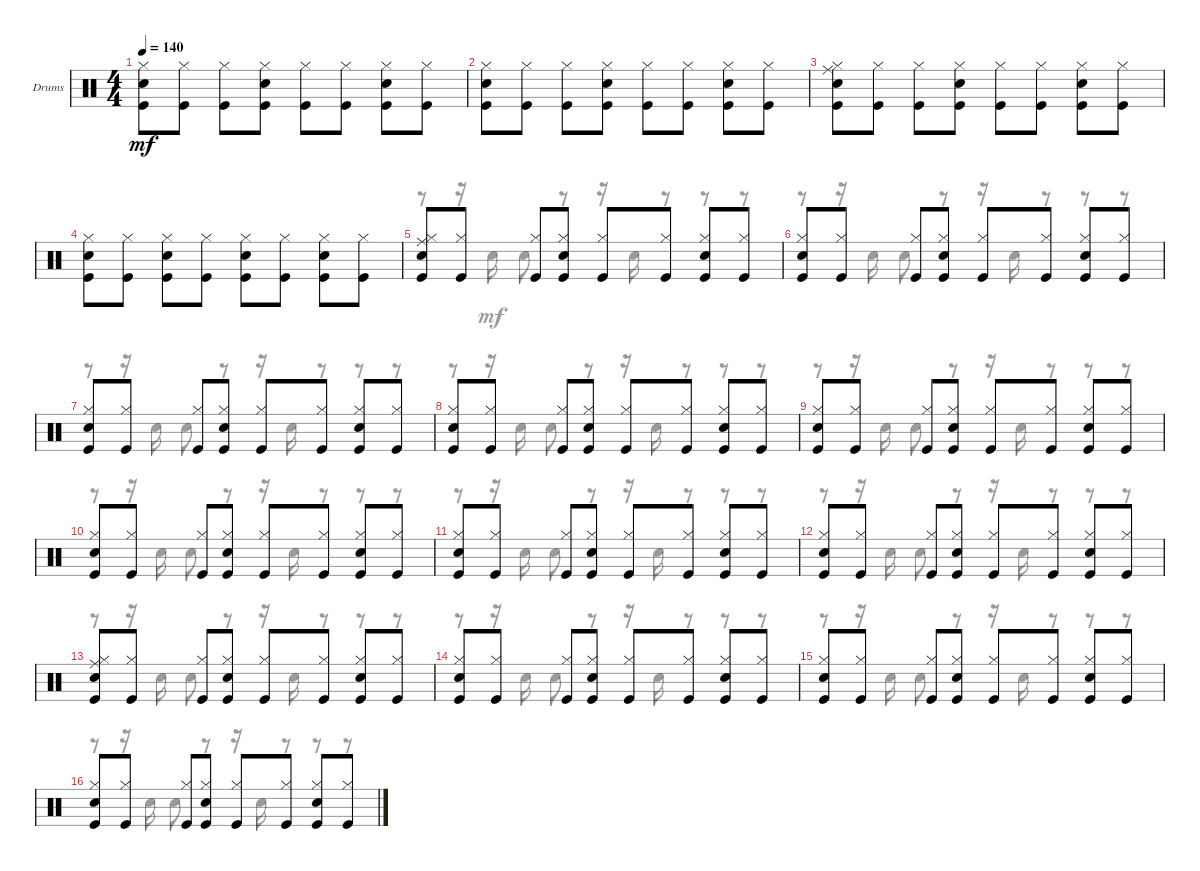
\defaultSystemsLayout 4
\bracketExtendMode groupsimilarinstruments
\firstSystemTrackNameOrientation horizontal
\otherSystemsTrackNameOrientation horizontal
\track ("Ударные" "Drums") {instrument percussion}
\staff {score}
\articulation defaults
\voice
\ts (4 4)
\tempo 140
\clef neutral
\scale
0.333333
\ks c
("Snare (hit) 2" "Hi-Hat (closed)" "Kick (hit)").8{dy mf} ("Hi-Hat (closed)" "Kick (hit)").8 ("Hi-Hat (closed)" "Kick (hit)").8 ("Snare (hit) 2" "Hi-Hat (closed)" "Kick (hit)").8 ("Hi-Hat (closed)" "Kick (hit)").8 ("Hi-Hat (closed)" "Kick (hit)").8 ("Snare (hit) 2" "Hi-Hat (closed)" "Kick (hit)").8 ("Hi-Hat (closed)" "Kick (hit)").8 |
\scale
0.333333 ("Snare (hit) 2" "Hi-Hat (closed)" "Kick (hit)").8 ("Hi-Hat (closed)" "Kick (hit)").8 ("Hi-Hat (closed)" "Kick (hit)").8 ("Snare (hit) 2" "Hi-Hat (closed)" "Kick (hit)").8 ("Hi-Hat (closed)" "Kick (hit)").8 ("Hi-Hat (closed)" "Kick (hit)").8 ("Snare (hit) 2" "Hi-Hat (closed)" "Kick (hit)").8 ("Hi-Hat (closed)" "Kick (hit)").8 |
\scale
0.333333 ("Snare (hit) 2" "Hi-Hat (closed)" "Kick (hit)" "Ride (middle)").8 ("Hi-Hat (closed)" "Kick (hit)").8 ("Hi-Hat (closed)" "Kick (hit)").8 ("Snare (hit) 2" "Hi-Hat (closed)" "Kick (hit)").8 ("Hi-Hat (closed)" "Kick (hit)").8 ("Hi-Hat (closed)" "Kick (hit)").8 ("Snare (hit) 2" "Hi-Hat (closed)" "Kick (hit)").8 ("Hi-Hat (closed)" "Kick (hit)").8 |
\scale
0.333333 ("Snare (hit) 2" "Hi-Hat (closed)" "Kick (hit)").8 ("Hi-Hat (closed)" "Kick (hit)").8 ("Hi-Hat (closed)" "Kick (hit)" "Snare (hit) 2").8 ("Hi-Hat (closed)" "Kick (hit)").8 ("Hi-Hat (closed)" "Kick (hit)" "Snare (hit) 2").8 ("Hi-Hat (closed)" "Kick (hit)").8 ("Snare (hit) 2" "Hi-Hat (closed)" "Kick (hit)").8 ("Hi-Hat (closed)" "Kick (hit)").8 |
\scale
0.333333 ("Snare (hit) 2" "Hi-Hat (closed)" "Kick (hit)" "Ride (middle)").8 ("Hi-Hat (closed)" "Kick (hit)").8 ("Hi-Hat (closed)" "Kick (hit)").8 ("Snare (hit) 2" "Hi-Hat (closed)" "Kick (hit)").8 ("Hi-Hat (closed)" "Kick (hit)").8 ("Hi-Hat (closed)" "Kick (hit)").8 ("Snare (hit) 2" "Hi-Hat (closed)" "Kick (hit)").8 ("Hi-Hat (closed)" "Kick (hit)").8 |
\scale
0.333333 ("Snare (hit) 2" "Hi-Hat (closed)" "Kick (hit)").8 ("Hi-Hat (closed)" "Kick (hit)").8 ("Hi-Hat (closed)" "Kick (hit)").8 ("Snare (hit) 2" "Hi-Hat (closed)" "Kick (hit)").8 ("Hi-Hat (closed)" "Kick (hit)").8 ("Hi-Hat (closed)" "Kick (hit)").8 ("Snare (hit) 2" "Hi-Hat (closed)" "Kick (hit)").8 ("Hi-Hat (closed)" "Kick (hit)").8 |
\scale
0.333333 ("Snare (hit) 2" "Hi-Hat (closed)" "Kick (hit)").8 ("Hi-Hat (closed)" "Kick (hit)").8 ("Hi-Hat (closed)" "Kick (hit)").8 ("Snare (hit) 2" "Hi-Hat (closed)" "Kick (hit)").8 ("Hi-Hat (closed)" "Kick (hit)").8 ("Hi-Hat (closed)" "Kick (hit)").8 ("Snare (hit) 2" "Hi-Hat (closed)" "Kick (hit)").8 ("Hi-Hat (closed)" "Kick (hit)").8 |
\scale
0.333333 ("Snare (hit) 2" "Hi-Hat (closed)" "Kick (hit)").8 ("Hi-Hat (closed)" "Kick (hit)").8 ("Hi-Hat (closed)" "Kick (hit)").8 ("Snare (hit) 2" "Hi-Hat (closed)" "Kick (hit)").8 ("Hi-Hat (closed)" "Kick (hit)").8 ("Hi-Hat (closed)" "Kick (hit)").8 ("Snare (hit) 2" "Hi-Hat (closed)" "Kick (hit)").8 ("Hi-Hat (closed)" "Kick (hit)").8 |
\scale
0.333333 ("Snare (hit) 2" "Hi-Hat (closed)" "Kick (hit)").8 ("Hi-Hat (closed)" "Kick (hit)").8 ("Hi-Hat (closed)" "Kick (hit)").8 ("Snare (hit) 2" "Hi-Hat (closed)" "Kick (hit)").8 ("Hi-Hat (closed)" "Kick (hit)").8 ("Hi-Hat (closed)" "Kick (hit)").8 ("Snare (hit) 2" "Hi-Hat (closed)" "Kick (hit)").8 ("Hi-Hat (closed)" "Kick (hit)").8 |
\scale
0.333333 ("Snare (hit) 2" "Hi-Hat (closed)" "Kick (hit)").8 ("Hi-Hat (closed)" "Kick (hit)").8 ("Hi-Hat (closed)" "Kick (hit)").8 ("Snare (hit) 2" "Hi-Hat (closed)" "Kick (hit)").8 ("Hi-Hat (closed)" "Kick (hit)").8 ("Hi-Hat (closed)" "Kick (hit)").8 ("Snare (hit) 2" "Hi-Hat (closed)" "Kick (hit)").8 ("Hi-Hat (closed)" "Kick (hit)").8 |
\scale
0.333333 ("Snare (hit) 2" "Hi-Hat (closed)" "Kick (hit)").8 ("Hi-Hat (closed)" "Kick (hit)").8 ("Hi-Hat (closed)" "Kick (hit)").8 ("Snare (hit) 2" "Hi-Hat (closed)" "Kick (hit)").8 ("Hi-Hat (closed)" "Kick (hit)").8 ("Hi-Hat (closed)" "Kick (hit)").8 ("Snare (hit) 2" "Hi-Hat (closed)" "Kick (hit)").8 ("Hi-Hat (closed)" "Kick (hit)").8 |
\scale
0.333333 ("Snare (hit) 2" "Hi-Hat (closed)" "Kick (hit)").8 ("Hi-Hat (closed)" "Kick (hit)").8 ("Hi-Hat (closed)" "Kick (hit)").8 ("Snare (hit) 2" "Hi-Hat (closed)" "Kick (hit)").8 ("Hi-Hat (closed)" "Kick (hit)").8 ("Hi-Hat (closed)" "Kick (hit)").8 ("Snare (hit) 2" "Hi-Hat (closed)" "Kick (hit)").8 ("Hi-Hat (closed)" "Kick (hit)").8 |
\scale
0.333333 ("Snare (hit) 2" "Hi-Hat (closed)" "Kick (hit)" "Ride (middle)").8 ("Hi-Hat (closed)" "Kick (hit)").8 ("Hi-Hat (closed)" "Kick (hit)").8 ("Snare (hit) 2" "Hi-Hat (closed)" "Kick (hit)").8 ("Hi-Hat (closed)" "Kick (hit)").8 ("Hi-Hat (closed)" "Kick (hit)").8 ("Snare (hit) 2" "Hi-Hat (closed)" "Kick (hit)").8 ("Hi-Hat (closed)" "Kick (hit)").8 |
\scale
0.333333 ("Snare (hit) 2" "Hi-Hat (closed)" "Kick (hit)").8 ("Hi-Hat (closed)" "Kick (hit)").8 ("Hi-Hat (closed)" "Kick (hit)").8 ("Snare (hit) 2" "Hi-Hat (closed)" "Kick (hit)").8 ("Hi-Hat (closed)" "Kick (hit)").8 ("Hi-Hat (closed)" "Kick (hit)").8 ("Snare (hit) 2" "Hi-Hat (closed)" "Kick (hit)").8 ("Hi-Hat (closed)" "Kick (hit)").8 |
\scale
0.333333 ("Snare (hit) 2" "Hi-Hat (closed)" "Kick (hit)").8 ("Hi-Hat (closed)" "Kick (hit)").8 ("Hi-Hat (closed)" "Kick (hit)").8 ("Snare (hit) 2" "Hi-Hat (closed)" "Kick (hit)").8 ("Hi-Hat (closed)" "Kick (hit)").8 ("Hi-Hat (closed)" "Kick (hit)").8 ("Snare (hit) 2" "Hi-Hat (closed)" "Kick (hit)").8 ("Hi-Hat (closed)" "Kick (hit)").8 |
\scale
0.333333 ("Snare (hit) 2" "Hi-Hat (closed)" "Kick (hit)").8 ("Hi-Hat (closed)" "Kick (hit)").8 ("Hi-Hat (closed)" "Kick (hit)").8 ("Snare (hit) 2" "Hi-Hat (closed)" "Kick (hit)").8 ("Hi-Hat (closed)" "Kick (hit)").8 ("Hi-Hat (closed)" "Kick (hit)").8 ("Snare (hit) 2" "Hi-Hat (closed)" "Kick (hit)").8 ("Hi-Hat (closed)" "Kick (hit)").8
\voice
\clef neutral
\ottava regular
\simile none
\scale
0.333333
\ks c
|
\scale
0.333333 |
\scale
0.333333 |
\scale
0.333333 |
\scale
0.333333 r.8 r.16 "Snare (hit) 2".16 "Snare (hit) 2".8 r.8 r.16 "Snare (hit) 2".16 r.8 r.8 r.8 |
\scale
0.333333 r.8 r.16 "Snare (hit) 2".16 "Snare (hit) 2".8 r.8 r.16 "Snare (hit) 2".16 r.8 r.8 r.8 |
\scale
0.333333 r.8 r.16 "Snare (hit) 2".16 "Snare (hit) 2".8 r.8 r.16 "Snare (hit) 2".16 r.8 r.8 r.8 |
\scale
0.333333 r.8 r.16 "Snare (hit) 2".16 "Snare (hit) 2".8 r.8 r.16 "Snare (hit) 2".16 r.8 r.8 r.8 |
\scale
0.333333 r.8 r.16 "Snare (hit) 2".16 "Snare (hit) 2".8 r.8 r.16 "Snare (hit) 2".16 r.8 r.8 r.8 |
\scale
0.333333 r.8 r.16 "Snare (hit) 2".16 "Snare (hit) 2".8 r.8 r.16 "Snare (hit) 2".16 r.8 r.8 r.8 |
\scale
0.333333 r.8 r.16 "Snare (hit) 2".16 "Snare (hit) 2".8 r.8 r.16 "Snare (hit) 2".16 r.8 r.8 r.8 |
\scale
0.333333 r.8 r.16 "Snare (hit) 2".16 "Snare (hit) 2".8 r.8 r.16 "Snare (hit) 2".16 r.8 r.8 r.8 |
\scale
0.333333 r.8 r.16 "Snare (hit) 2".16 "Snare (hit) 2".8 r.8 r.16 "Snare (hit) 2".16 r.8 r.8 r.8 |
\scale
0.333333 r.8 r.16 "Snare (hit) 2".16 "Snare (hit) 2".8 r.8 r.16 "Snare (hit) 2".16 r.8 r.8 r.8 |
\scale
0.333333 r.8 r.16 "Snare (hit) 2".16 "Snare (hit) 2".8 r.8 r.16 "Snare (hit) 2".16 r.8 r.8 r.8 |
\scale
0.333333 r.8 r.16 "Snare (hit) 2".16 "Snare (hit) 2".8 r.8 r.16 "Snare (hit) 2".16 r.8 r.8 r.8
